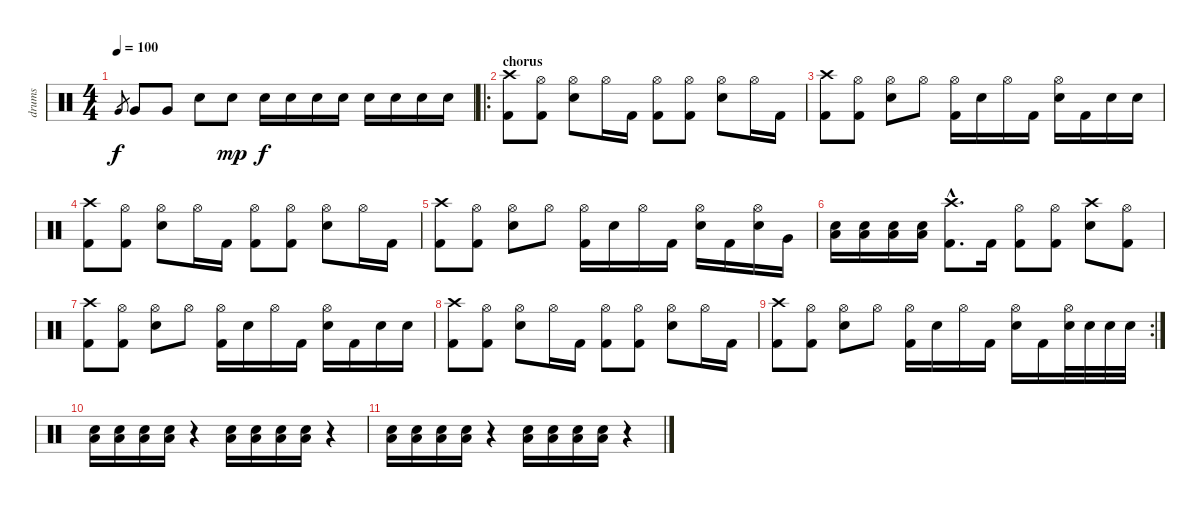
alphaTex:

\track ("drums" "drums") {instrument percussion}
\staff {score}
\articulation defaults
\ts (4 4)
\tempo 100
\clef neutral
\ks c "Very Low Tom (hit)".8{gr dy f} "Very Low Tom (hit)".8 "Very Low Tom (hit)".8 "Electric Snare (hit)".8 "Electric Snare (hit)".8{dy mp} "Electric Snare (hit)".16{dy f} "Electric Snare (hit)".16 "Electric Snare (hit)".16 "Electric Snare (hit)".16 "Electric Snare (hit)".16 "Electric Snare (hit)".16 "Electric Snare (hit)".16 "Electric Snare (hit)".16
|
\ro
\section ("" "chorus")
("Crash high (hit)" "Kick (hit) 2").8 ("Hi-Hat (open)" "Kick (hit) 2").8 ("Hi-Hat (open)" "Electric Snare (hit)").8 "Hi-Hat (open)".16 "Kick (hit) 2".16 ("Hi-Hat (open)" "Kick (hit) 2").8 ("Hi-Hat (open)" "Kick (hit) 2").8 ("Hi-Hat (open)" "Electric Snare (hit)").8 "Hi-Hat (open)".16 "Kick (hit) 2".16 |
("Crash high (hit)" "Kick (hit) 2").8 ("Hi-Hat (open)" "Kick (hit) 2").8 ("Hi-Hat (open)" "Electric Snare (hit)").8 "Hi-Hat (open)".8 ("Hi-Hat (open)" "Kick (hit) 2").16 "Electric Snare (hit)".16 "Hi-Hat (open)".16 "Kick (hit) 2".16 ("Hi-Hat (open)" "Electric Snare (hit)").16 "Kick (hit) 2".16 "Electric Snare (hit)".16 "Electric Snare (hit)".16 |
("Crash high (hit)" "Kick (hit) 2").8 ("Hi-Hat (open)" "Kick (hit) 2").8 ("Hi-Hat (open)" "Electric Snare (hit)").8 "Hi-Hat (open)".16 "Kick (hit) 2".16 ("Hi-Hat (open)" "Kick (hit) 2").8 ("Hi-Hat (open)" "Kick (hit) 2").8 ("Hi-Hat (open)" "Electric Snare (hit)").8 "Hi-Hat (open)".16 "Kick (hit) 2".16 |
("Crash high (hit)" "Kick (hit) 2").8 ("Hi-Hat (open)" "Kick (hit) 2").8 ("Hi-Hat (open)" "Electric Snare (hit)").8 "Hi-Hat (open)".8 ("Hi-Hat (open)" "Kick (hit) 2").16 "Electric Snare (hit)".16 "Hi-Hat (open)".16 "Kick (hit) 2".16 ("Hi-Hat (open)" "Electric Snare (hit)").16 "Kick (hit) 2".16 ("Hi-Hat (open)" "Electric Snare (hit)").16 "Very Low Tom (hit)".16 |
("Low Floor Tom (hit)" "Electric Snare (hit)").16 ("Low Floor Tom (hit)" "Electric Snare (hit)").16 ("Low Floor Tom (hit)" "Electric Snare (hit)").16 ("Low Floor Tom (hit)" "Electric Snare (hit)").16 ("Crash high (hit)"{hac} "Kick (hit) 2"{hac}).8{d} "Kick (hit) 2".16 ("Hi-Hat (open)" "Kick (hit) 2").8 ("Hi-Hat (open)" "Kick (hit) 2").8 ("Crash high (hit)" "Electric Snare (hit)").8 ("Hi-Hat (open)" "Kick (hit) 2").8 |
("Crash high (hit)" "Kick (hit) 2").8 ("Hi-Hat (open)" "Kick (hit) 2").8 ("Hi-Hat (open)" "Electric Snare (hit)").8 "Hi-Hat (open)".8 ("Hi-Hat (open)" "Kick (hit) 2").16 "Electric Snare (hit)".16 "Hi-Hat (open)".16 "Kick (hit) 2".16 ("Hi-Hat (open)" "Electric Snare (hit)").16 "Kick (hit) 2".16 "Electric Snare (hit)".16 "Electric Snare (hit)".16 |
("Crash high (hit)" "Kick (hit) 2").8 ("Hi-Hat (open)" "Kick (hit) 2").8 ("Hi-Hat (open)" "Electric Snare (hit)").8 "Hi-Hat (open)".16 "Kick (hit) 2".16 ("Hi-Hat (open)" "Kick (hit) 2").8 ("Hi-Hat (open)" "Kick (hit) 2").8 ("Hi-Hat (open)" "Electric Snare (hit)").8 "Hi-Hat (open)".16 "Kick (hit) 2".16 |
\rc 2
("Crash high (hit)" "Kick (hit) 2").8 ("Hi-Hat (open)" "Kick (hit) 2").8 ("Hi-Hat (open)" "Electric Snare (hit)").8 "Hi-Hat (open)".8 ("Hi-Hat (open)" "Kick (hit) 2").16 "Electric Snare (hit)".16 "Hi-Hat (open)".16 "Kick (hit) 2".16 ("Hi-Hat (open)" "Electric Snare (hit)").16 "Kick (hit) 2".16 ("Hi-Hat (open)" "Electric Snare (hit)").32 "Electric Snare (hit)".32 "Electric Snare (hit)".32 "Electric Snare (hit)".32 |
("Low Floor Tom (hit)" "Electric Snare (hit)").16 ("Low Floor Tom (hit)" "Electric Snare (hit)").16 ("Low Floor Tom (hit)" "Electric Snare (hit)").16 ("Low Floor Tom (hit)" "Electric Snare (hit)").16 r.4 ("Low Floor Tom (hit)" "Electric Snare (hit)").16 ("Low Floor Tom (hit)" "Electric Snare (hit)").16 ("Low Floor Tom (hit)" "Electric Snare (hit)").16 ("Low Floor Tom (hit)" "Electric Snare (hit)").16 r.4 |
("Low Floor Tom (hit)" "Electric Snare (hit)").16 ("Low Floor Tom (hit)" "Electric Snare (hit)").16 ("Low Floor Tom (hit)" "Electric Snare (hit)").16 ("Low Floor Tom (hit)" "Electric Snare (hit)").16 r.4 ("Low Floor Tom (hit)" "Electric Snare (hit)").16 ("Low Floor Tom (hit)" "Electric Snare (hit)").16 ("Low Floor Tom (hit)" "Electric Snare (hit)").16 ("Low Floor Tom (hit)" "Electric Snare (hit)").16 r.4
